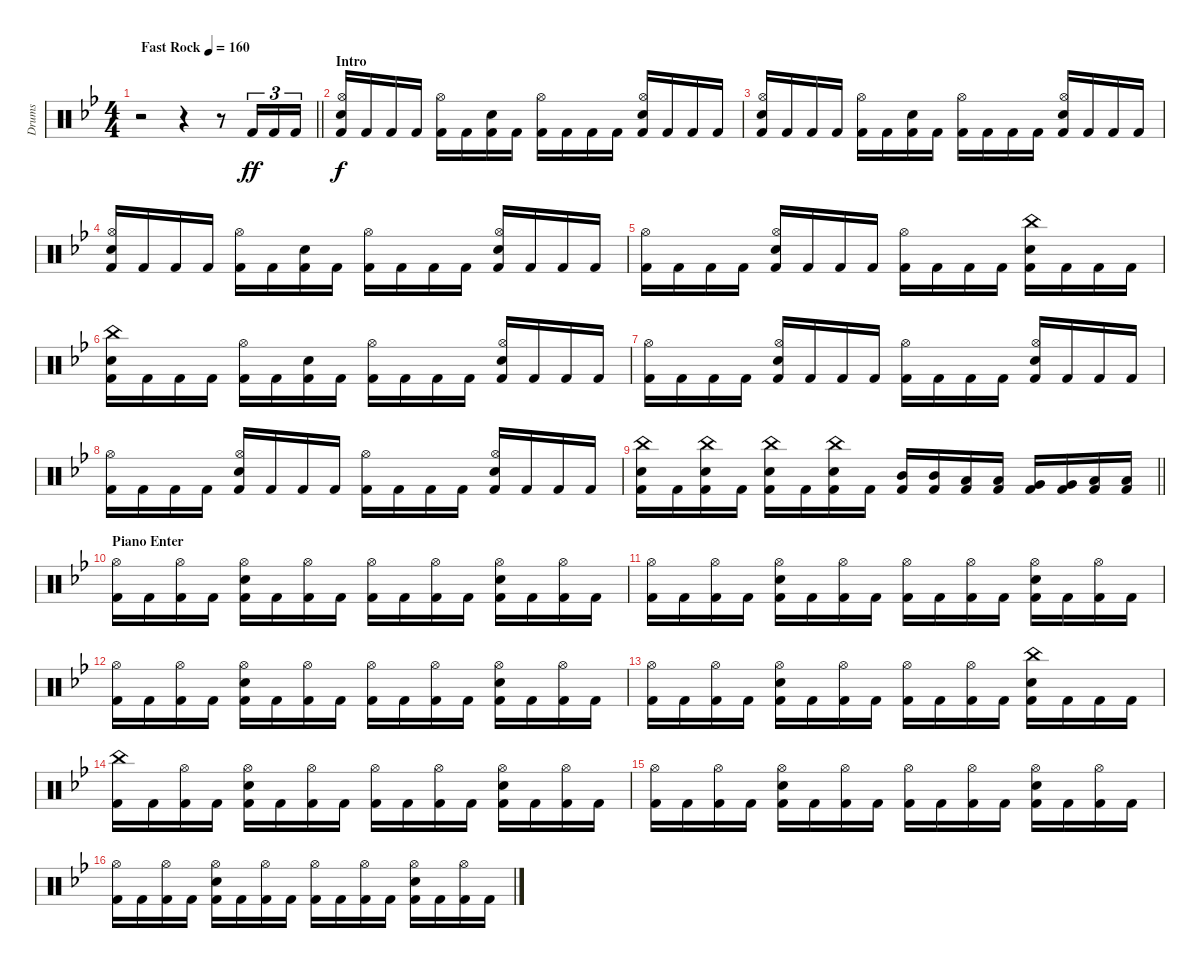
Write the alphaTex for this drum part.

\track ("Drums" "Drums") {instrument percussion}
\staff {score}
\articulation defaults
\ts (4 4)
\tempo (160 "Fast Rock")
\clef neutral
\barLineRight lightlight
\ks bb
r.2{dy ff} r.4 r.8 "Kick (hit) 2".16{tu (3 2)} "Kick (hit) 2".16{tu (3 2)} "Kick (hit) 2".16{tu (3 2)} |
\section ("" "Intro")
("Hi-Hat (open)" "Electric Snare (hit)" "Kick (hit) 2").16{dy f} "Kick (hit) 2".16 "Kick (hit) 2".16 "Kick (hit) 2".16 ("Hi-Hat (open)" "Kick (hit) 2").16 "Kick (hit) 2".16 ("Electric Snare (hit)" "Kick (hit) 2").16 "Kick (hit) 2".16 ("Hi-Hat (open)" "Kick (hit) 2").16 "Kick (hit) 2".16 "Kick (hit) 2".16 "Kick (hit) 2".16 ("Hi-Hat (open)" "Electric Snare (hit)" "Kick (hit) 2").16 "Kick (hit) 2".16 "Kick (hit) 2".16 "Kick (hit) 2".16 |
("Hi-Hat (open)" "Electric Snare (hit)" "Kick (hit) 2").16 "Kick (hit) 2".16 "Kick (hit) 2".16 "Kick (hit) 2".16 ("Hi-Hat (open)" "Kick (hit) 2").16 "Kick (hit) 2".16 ("Electric Snare (hit)" "Kick (hit) 2").16 "Kick (hit) 2".16 ("Hi-Hat (open)" "Kick (hit) 2").16 "Kick (hit) 2".16 "Kick (hit) 2".16 "Kick (hit) 2".16 ("Hi-Hat (open)" "Electric Snare (hit)" "Kick (hit) 2").16 "Kick (hit) 2".16 "Kick (hit) 2".16 "Kick (hit) 2".16 |
("Hi-Hat (open)" "Electric Snare (hit)" "Kick (hit) 2").16 "Kick (hit) 2".16 "Kick (hit) 2".16 "Kick (hit) 2".16 ("Hi-Hat (open)" "Kick (hit) 2").16 "Kick (hit) 2".16 ("Electric Snare (hit)" "Kick (hit) 2").16 "Kick (hit) 2".16 ("Hi-Hat (open)" "Kick (hit) 2").16 "Kick (hit) 2".16 "Kick (hit) 2".16 "Kick (hit) 2".16 ("Hi-Hat (open)" "Electric Snare (hit)" "Kick (hit) 2").16 "Kick (hit) 2".16 "Kick (hit) 2".16 "Kick (hit) 2".16 |
("Hi-Hat (open)" "Kick (hit) 2").16 "Kick (hit) 2".16 "Kick (hit) 2".16 "Kick (hit) 2".16 ("Hi-Hat (open)" "Electric Snare (hit)" "Kick (hit) 2").16 "Kick (hit) 2".16 "Kick (hit) 2".16 "Kick (hit) 2".16 ("Hi-Hat (open)" "Kick (hit) 2").16 "Kick (hit) 2".16 "Kick (hit) 2".16 "Kick (hit) 2".16 ("China (hit)" "Electric Snare (hit)" "Kick (hit) 2").16 "Kick (hit) 2".16 "Kick (hit) 2".16 "Kick (hit) 2".16 |
("China (hit)" "Electric Snare (hit)" "Kick (hit) 2").16 "Kick (hit) 2".16 "Kick (hit) 2".16 "Kick (hit) 2".16 ("Hi-Hat (open)" "Kick (hit) 2").16 "Kick (hit) 2".16 ("Electric Snare (hit)" "Kick (hit) 2").16 "Kick (hit) 2".16 ("Hi-Hat (open)" "Kick (hit) 2").16 "Kick (hit) 2".16 "Kick (hit) 2".16 "Kick (hit) 2".16 ("Hi-Hat (open)" "Electric Snare (hit)" "Kick (hit) 2").16 "Kick (hit) 2".16 "Kick (hit) 2".16 "Kick (hit) 2".16 |
("Hi-Hat (open)" "Kick (hit) 2").16 "Kick (hit) 2".16 "Kick (hit) 2".16 "Kick (hit) 2".16 ("Hi-Hat (open)" "Electric Snare (hit)" "Kick (hit) 2").16 "Kick (hit) 2".16 "Kick (hit) 2".16 "Kick (hit) 2".16 ("Hi-Hat (open)" "Kick (hit) 2").16 "Kick (hit) 2".16 "Kick (hit) 2".16 "Kick (hit) 2".16 ("Hi-Hat (open)" "Electric Snare (hit)" "Kick (hit) 2").16 "Kick (hit) 2".16 "Kick (hit) 2".16 "Kick (hit) 2".16 |
("Hi-Hat (open)" "Kick (hit) 2").16 "Kick (hit) 2".16 "Kick (hit) 2".16 "Kick (hit) 2".16 ("Hi-Hat (open)" "Electric Snare (hit)" "Kick (hit) 2").16 "Kick (hit) 2".16 "Kick (hit) 2".16 "Kick (hit) 2".16 ("Hi-Hat (open)" "Kick (hit) 2").16 "Kick (hit) 2".16 "Kick (hit) 2".16 "Kick (hit) 2".16 ("Hi-Hat (open)" "Electric Snare (hit)" "Kick (hit) 2").16 "Kick (hit) 2".16 "Kick (hit) 2".16 "Kick (hit) 2".16 |
\barLineRight lightlight
("China (hit)" "Electric Snare (hit)" "Kick (hit) 2").16 "Kick (hit) 2".16 ("China (hit)" "Electric Snare (hit)" "Kick (hit) 2").16 "Kick (hit) 2".16 ("China (hit)" "Electric Snare (hit)" "Kick (hit) 2").16 "Kick (hit) 2".16 ("China (hit)" "Electric Snare (hit)" "Kick (hit) 2").16 "Kick (hit) 2".16 ("Mid Tom (hit)" "Kick (hit) 2").16 ("Mid Tom (hit)" "Kick (hit) 2").16 ("Low Tom (hit)" "Kick (hit) 2").16 ("Low Tom (hit)" "Kick (hit) 2").16 ("Very Low Tom (hit)" "Kick (hit) 2").16 ("Very Low Tom (hit)" "Kick (hit) 2").16 ("Low Floor Tom (hit)" "Kick (hit) 2").16 ("Low Floor Tom (hit)" "Kick (hit) 2").16 |
\section ("" "Piano Enter")
("Hi-Hat (open)" "Kick (hit) 2").16 "Kick (hit) 2".16 ("Hi-Hat (open)" "Kick (hit) 2").16 "Kick (hit) 2".16 ("Hi-Hat (open)" "Electric Snare (hit)" "Kick (hit) 2").16 "Kick (hit) 2".16 ("Hi-Hat (open)" "Kick (hit) 2").16 "Kick (hit) 2".16 ("Hi-Hat (open)" "Kick (hit) 2").16 "Kick (hit) 2".16 ("Hi-Hat (open)" "Kick (hit) 2").16 "Kick (hit) 2".16 ("Hi-Hat (open)" "Electric Snare (hit)" "Kick (hit) 2").16 "Kick (hit) 2".16 ("Hi-Hat (open)" "Kick (hit) 2").16 "Kick (hit) 2".16 |
("Hi-Hat (open)" "Kick (hit) 2").16 "Kick (hit) 2".16 ("Hi-Hat (open)" "Kick (hit) 2").16 "Kick (hit) 2".16 ("Hi-Hat (open)" "Electric Snare (hit)" "Kick (hit) 2").16 "Kick (hit) 2".16 ("Hi-Hat (open)" "Kick (hit) 2").16 "Kick (hit) 2".16 ("Hi-Hat (open)" "Kick (hit) 2").16 "Kick (hit) 2".16 ("Hi-Hat (open)" "Kick (hit) 2").16 "Kick (hit) 2".16 ("Hi-Hat (open)" "Electric Snare (hit)" "Kick (hit) 2").16 "Kick (hit) 2".16 ("Hi-Hat (open)" "Kick (hit) 2").16 "Kick (hit) 2".16 |
("Hi-Hat (open)" "Kick (hit) 2").16 "Kick (hit) 2".16 ("Hi-Hat (open)" "Kick (hit) 2").16 "Kick (hit) 2".16 ("Hi-Hat (open)" "Electric Snare (hit)" "Kick (hit) 2").16 "Kick (hit) 2".16 ("Hi-Hat (open)" "Kick (hit) 2").16 "Kick (hit) 2".16 ("Hi-Hat (open)" "Kick (hit) 2").16 "Kick (hit) 2".16 ("Hi-Hat (open)" "Kick (hit) 2").16 "Kick (hit) 2".16 ("Hi-Hat (open)" "Electric Snare (hit)" "Kick (hit) 2").16 "Kick (hit) 2".16 ("Hi-Hat (open)" "Kick (hit) 2").16 "Kick (hit) 2".16 |
("Hi-Hat (open)" "Kick (hit) 2").16 "Kick (hit) 2".16 ("Hi-Hat (open)" "Kick (hit) 2").16 "Kick (hit) 2".16 ("Hi-Hat (open)" "Electric Snare (hit)" "Kick (hit) 2").16 "Kick (hit) 2".16 ("Hi-Hat (open)" "Kick (hit) 2").16 "Kick (hit) 2".16 ("Hi-Hat (open)" "Kick (hit) 2").16 "Kick (hit) 2".16 ("Hi-Hat (open)" "Kick (hit) 2").16 "Kick (hit) 2".16 ("China (hit)" "Electric Snare (hit)" "Kick (hit) 2").16 "Kick (hit) 2".16 "Kick (hit) 2".16 "Kick (hit) 2".16 |
("China (hit)" "Kick (hit) 2").16 "Kick (hit) 2".16 ("Hi-Hat (open)" "Kick (hit) 2").16 "Kick (hit) 2".16 ("Hi-Hat (open)" "Electric Snare (hit)" "Kick (hit) 2").16 "Kick (hit) 2".16 ("Hi-Hat (open)" "Kick (hit) 2").16 "Kick (hit) 2".16 ("Hi-Hat (open)" "Kick (hit) 2").16 "Kick (hit) 2".16 ("Hi-Hat (open)" "Kick (hit) 2").16 "Kick (hit) 2".16 ("Hi-Hat (open)" "Electric Snare (hit)" "Kick (hit) 2").16 "Kick (hit) 2".16 ("Hi-Hat (open)" "Kick (hit) 2").16 "Kick (hit) 2".16 |
("Hi-Hat (open)" "Kick (hit) 2").16 "Kick (hit) 2".16 ("Hi-Hat (open)" "Kick (hit) 2").16 "Kick (hit) 2".16 ("Hi-Hat (open)" "Electric Snare (hit)" "Kick (hit) 2").16 "Kick (hit) 2".16 ("Hi-Hat (open)" "Kick (hit) 2").16 "Kick (hit) 2".16 ("Hi-Hat (open)" "Kick (hit) 2").16 "Kick (hit) 2".16 ("Hi-Hat (open)" "Kick (hit) 2").16 "Kick (hit) 2".16 ("Hi-Hat (open)" "Electric Snare (hit)" "Kick (hit) 2").16 "Kick (hit) 2".16 ("Hi-Hat (open)" "Kick (hit) 2").16 "Kick (hit) 2".16 |
("Hi-Hat (open)" "Kick (hit) 2").16 "Kick (hit) 2".16 ("Hi-Hat (open)" "Kick (hit) 2").16 "Kick (hit) 2".16 ("Hi-Hat (open)" "Electric Snare (hit)" "Kick (hit) 2").16 "Kick (hit) 2".16 ("Hi-Hat (open)" "Kick (hit) 2").16 "Kick (hit) 2".16 ("Hi-Hat (open)" "Kick (hit) 2").16 "Kick (hit) 2".16 ("Hi-Hat (open)" "Kick (hit) 2").16 "Kick (hit) 2".16 ("Hi-Hat (open)" "Electric Snare (hit)" "Kick (hit) 2").16 "Kick (hit) 2".16 ("Hi-Hat (open)" "Kick (hit) 2").16 "Kick (hit) 2".16
